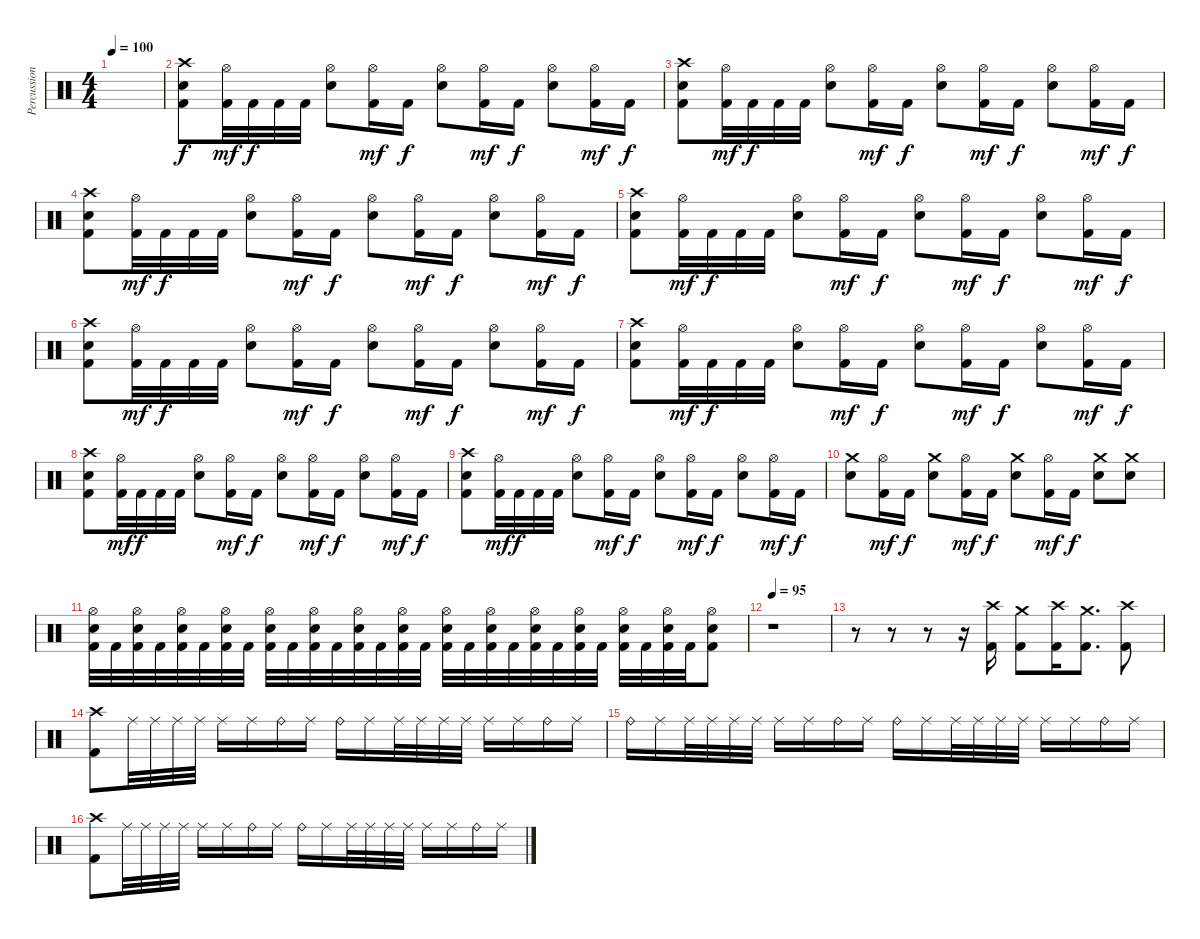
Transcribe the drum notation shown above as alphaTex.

\track ("Percussion" "Percussion") {instrument percussion}
\staff {score}
\articulation defaults
\ts (4 4)
\tempo 100
\clef neutral
\ks c
|
("Crash high (hit)" "Snare (hit) 2" "Kick (hit) 2").8 ("Hi-Hat (open)" "Kick (hit) 2").32{dy mf} "Kick (hit) 2".32{dy f} "Kick (hit) 2".32 "Kick (hit) 2".32 ("Hi-Hat (open)" "Snare (hit) 2").8 ("Hi-Hat (open)" "Kick (hit) 2").16{dy mf} "Kick (hit) 2".16{dy f} ("Hi-Hat (open)" "Snare (hit) 2").8 ("Hi-Hat (open)" "Kick (hit) 2").16{dy mf} "Kick (hit) 2".16{dy f} ("Hi-Hat (open)" "Snare (hit) 2").8 ("Hi-Hat (open)" "Kick (hit) 2").16{dy mf} "Kick (hit) 2".16{dy f} |
("Crash high (hit)" "Snare (hit) 2" "Kick (hit) 2").8 ("Hi-Hat (open)" "Kick (hit) 2").32{dy mf} "Kick (hit) 2".32{dy f} "Kick (hit) 2".32 "Kick (hit) 2".32 ("Hi-Hat (open)" "Snare (hit) 2").8 ("Hi-Hat (open)" "Kick (hit) 2").16{dy mf} "Kick (hit) 2".16{dy f} ("Hi-Hat (open)" "Snare (hit) 2").8 ("Hi-Hat (open)" "Kick (hit) 2").16{dy mf} "Kick (hit) 2".16{dy f} ("Hi-Hat (open)" "Snare (hit) 2").8 ("Hi-Hat (open)" "Kick (hit) 2").16{dy mf} "Kick (hit) 2".16{dy f} |
("Crash high (hit)" "Snare (hit) 2" "Kick (hit) 2").8 ("Hi-Hat (open)" "Kick (hit) 2").32{dy mf} "Kick (hit) 2".32{dy f} "Kick (hit) 2".32 "Kick (hit) 2".32 ("Hi-Hat (open)" "Snare (hit) 2").8 ("Hi-Hat (open)" "Kick (hit) 2").16{dy mf} "Kick (hit) 2".16{dy f} ("Hi-Hat (open)" "Snare (hit) 2").8 ("Hi-Hat (open)" "Kick (hit) 2").16{dy mf} "Kick (hit) 2".16{dy f} ("Hi-Hat (open)" "Snare (hit) 2").8 ("Hi-Hat (open)" "Kick (hit) 2").16{dy mf} "Kick (hit) 2".16{dy f} |
("Crash high (hit)" "Snare (hit) 2" "Kick (hit) 2").8 ("Hi-Hat (open)" "Kick (hit) 2").32{dy mf} "Kick (hit) 2".32{dy f} "Kick (hit) 2".32 "Kick (hit) 2".32 ("Hi-Hat (open)" "Snare (hit) 2").8 ("Hi-Hat (open)" "Kick (hit) 2").16{dy mf} "Kick (hit) 2".16{dy f} ("Hi-Hat (open)" "Snare (hit) 2").8 ("Hi-Hat (open)" "Kick (hit) 2").16{dy mf} "Kick (hit) 2".16{dy f} ("Hi-Hat (open)" "Snare (hit) 2").8 ("Hi-Hat (open)" "Kick (hit) 2").16{dy mf} "Kick (hit) 2".16{dy f} |
("Crash high (hit)" "Snare (hit) 2" "Kick (hit) 2").8 ("Hi-Hat (open)" "Kick (hit) 2").32{dy mf} "Kick (hit) 2".32{dy f} "Kick (hit) 2".32 "Kick (hit) 2".32 ("Hi-Hat (open)" "Snare (hit) 2").8 ("Hi-Hat (open)" "Kick (hit) 2").16{dy mf} "Kick (hit) 2".16{dy f} ("Hi-Hat (open)" "Snare (hit) 2").8 ("Hi-Hat (open)" "Kick (hit) 2").16{dy mf} "Kick (hit) 2".16{dy f} ("Hi-Hat (open)" "Snare (hit) 2").8 ("Hi-Hat (open)" "Kick (hit) 2").16{dy mf} "Kick (hit) 2".16{dy f} |
("Crash high (hit)" "Snare (hit) 2" "Kick (hit) 2").8 ("Hi-Hat (open)" "Kick (hit) 2").32{dy mf} "Kick (hit) 2".32{dy f} "Kick (hit) 2".32 "Kick (hit) 2".32 ("Hi-Hat (open)" "Snare (hit) 2").8 ("Hi-Hat (open)" "Kick (hit) 2").16{dy mf} "Kick (hit) 2".16{dy f} ("Hi-Hat (open)" "Snare (hit) 2").8 ("Hi-Hat (open)" "Kick (hit) 2").16{dy mf} "Kick (hit) 2".16{dy f} ("Hi-Hat (open)" "Snare (hit) 2").8 ("Hi-Hat (open)" "Kick (hit) 2").16{dy mf} "Kick (hit) 2".16{dy f} |
("Crash high (hit)" "Snare (hit) 2" "Kick (hit) 2").8 ("Hi-Hat (open)" "Kick (hit) 2").32{dy mf} "Kick (hit) 2".32{dy f} "Kick (hit) 2".32 "Kick (hit) 2".32 ("Hi-Hat (open)" "Snare (hit) 2").8 ("Hi-Hat (open)" "Kick (hit) 2").16{dy mf} "Kick (hit) 2".16{dy f} ("Hi-Hat (open)" "Snare (hit) 2").8 ("Hi-Hat (open)" "Kick (hit) 2").16{dy mf} "Kick (hit) 2".16{dy f} ("Hi-Hat (open)" "Snare (hit) 2").8 ("Hi-Hat (open)" "Kick (hit) 2").16{dy mf} "Kick (hit) 2".16{dy f} |
("Crash high (hit)" "Snare (hit) 2" "Kick (hit) 2").8 ("Hi-Hat (open)" "Kick (hit) 2").32{dy mf} "Kick (hit) 2".32{dy f} "Kick (hit) 2".32 "Kick (hit) 2".32 ("Hi-Hat (open)" "Snare (hit) 2").8 ("Hi-Hat (open)" "Kick (hit) 2").16{dy mf} "Kick (hit) 2".16{dy f} ("Hi-Hat (open)" "Snare (hit) 2").8 ("Hi-Hat (open)" "Kick (hit) 2").16{dy mf} "Kick (hit) 2".16{dy f} ("Hi-Hat (open)" "Snare (hit) 2").8 ("Hi-Hat (open)" "Kick (hit) 2").16{dy mf} "Kick (hit) 2".16{dy f} |
("Crash medium (hit)" "Snare (hit) 2").8 ("Hi-Hat (open)" "Kick (hit) 2").16{dy mf} "Kick (hit) 2".16{dy f} ("Crash medium (hit)" "Snare (hit) 2").8 ("Hi-Hat (open)" "Kick (hit) 2").16{dy mf} "Kick (hit) 2".16{dy f} ("Crash medium (hit)" "Snare (hit) 2").8 ("Hi-Hat (open)" "Kick (hit) 2").16{dy mf} "Kick (hit) 2".16{dy f} ("Crash medium (hit)" "Snare (hit) 2").8 ("Crash medium (hit)" "Snare (hit) 2").8 |
("Hi-Hat (open)" "Snare (hit) 2" "Kick (hit) 2").32 "Kick (hit) 2".32 ("Hi-Hat (open)" "Snare (hit) 2" "Kick (hit) 2").32 "Kick (hit) 2".32 ("Hi-Hat (open)" "Snare (hit) 2" "Kick (hit) 2").32 "Kick (hit) 2".32 ("Hi-Hat (open)" "Snare (hit) 2" "Kick (hit) 2").32 "Kick (hit) 2".32 ("Hi-Hat (open)" "Snare (hit) 2" "Kick (hit) 2").32 "Kick (hit) 2".32 ("Hi-Hat (open)" "Snare (hit) 2" "Kick (hit) 2").32 "Kick (hit) 2".32 ("Hi-Hat (open)" "Snare (hit) 2" "Kick (hit) 2").32 "Kick (hit) 2".32 ("Hi-Hat (open)" "Snare (hit) 2" "Kick (hit) 2").32 "Kick (hit) 2".32 ("Hi-Hat (open)" "Snare (hit) 2" "Kick (hit) 2").32 "Kick (hit) 2".32 ("Hi-Hat (open)" "Snare (hit) 2" "Kick (hit) 2").32 "Kick (hit) 2".32 ("Hi-Hat (open)" "Snare (hit) 2" "Kick (hit) 2").32 "Kick (hit) 2".32 ("Hi-Hat (open)" "Snare (hit) 2" "Kick (hit) 2").32 "Kick (hit) 2".32 ("Hi-Hat (open)" "Snare (hit) 2" "Kick (hit) 2").32 "Kick (hit) 2".32 ("Hi-Hat (open)" "Snare (hit) 2" "Kick (hit) 2").32 "Kick (hit) 2".32 ("Hi-Hat (open)" "Snare (hit) 2" "Kick (hit) 2").8 |
\tempo 95
r.1 |
r.8 r.8 r.8 r.16 ("Crash high (hit)" "Kick (hit) 2").16 ("Crash medium (hit)" "Kick (hit) 2").8 ("Crash high (hit)" "Kick (hit) 2").16 ("Crash medium (hit)" "Kick (hit) 2").8{d} ("Crash high (hit)" "Kick (hit) 2").8 |
("Crash high (hit)" "Kick (hit) 2").8 "Ride (middle)".32 "Ride (middle)".32 "Ride (middle)".32 "Ride (middle)".32 "Ride (middle)".16 "Ride (middle)".16 "Ride (bell)".16 "Ride (middle)".16 "Ride (bell)".16 "Ride (middle)".16 "Ride (middle)".32 "Ride (middle)".32 "Ride (middle)".32 "Ride (middle)".32 "Ride (middle)".16 "Ride (middle)".16 "Ride (bell)".16 "Ride (middle)".16 |
"Ride (bell)".16 "Ride (middle)".16 "Ride (middle)".32 "Ride (middle)".32 "Ride (middle)".32 "Ride (middle)".32 "Ride (middle)".16 "Ride (middle)".16 "Ride (bell)".16 "Ride (middle)".16 "Ride (bell)".16 "Ride (middle)".16 "Ride (middle)".32 "Ride (middle)".32 "Ride (middle)".32 "Ride (middle)".32 "Ride (middle)".16 "Ride (middle)".16 "Ride (bell)".16 "Ride (middle)".16 |
("Crash high (hit)" "Kick (hit) 2").8 "Ride (middle)".32 "Ride (middle)".32 "Ride (middle)".32 "Ride (middle)".32 "Ride (middle)".16 "Ride (middle)".16 "Ride (bell)".16 "Ride (middle)".16 "Ride (bell)".16 "Ride (middle)".16 "Ride (middle)".32 "Ride (middle)".32 "Ride (middle)".32 "Ride (middle)".32 "Ride (middle)".16 "Ride (middle)".16 "Ride (bell)".16 "Ride (middle)".16
